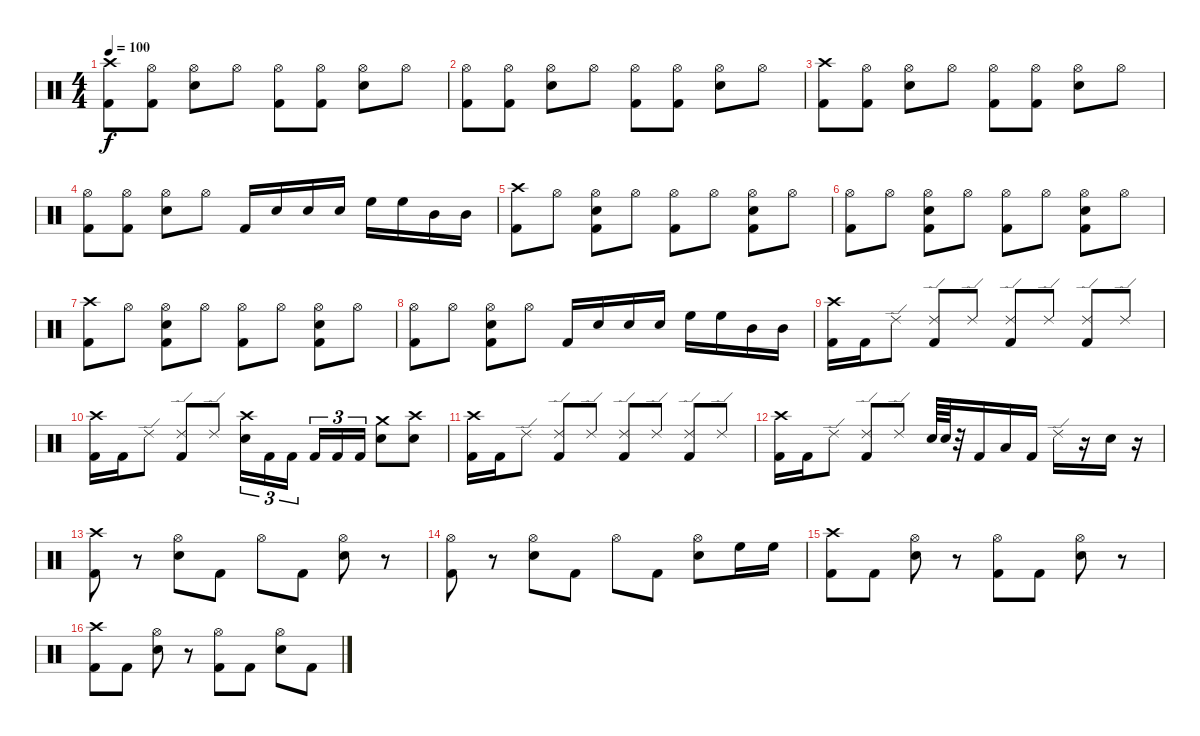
\track "" {instrument percussion}
\staff {score}
\articulation defaults
\ts (4 4)
\tempo 100
\clef neutral
\ks c
("Crash high (hit)" "Kick (hit) 2").8{dy f} ("Hi-Hat (open)" "Kick (hit) 2").8 ("Hi-Hat (open)" "Electric Snare (hit)").8 "Hi-Hat (open)".8 ("Hi-Hat (open)" "Kick (hit) 2").8 ("Hi-Hat (open)" "Kick (hit) 2").8 ("Hi-Hat (open)" "Electric Snare (hit)").8 "Hi-Hat (open)".8 |
("Hi-Hat (open)" "Kick (hit) 2").8 ("Hi-Hat (open)" "Kick (hit) 2").8 ("Hi-Hat (open)" "Electric Snare (hit)").8 "Hi-Hat (open)".8 ("Hi-Hat (open)" "Kick (hit) 2").8 ("Hi-Hat (open)" "Kick (hit) 2").8 ("Hi-Hat (open)" "Electric Snare (hit)").8 "Hi-Hat (open)".8 |
("Crash high (hit)" "Kick (hit) 2").8 ("Hi-Hat (open)" "Kick (hit) 2").8 ("Hi-Hat (open)" "Electric Snare (hit)").8 "Hi-Hat (open)".8 ("Hi-Hat (open)" "Kick (hit) 2").8 ("Hi-Hat (open)" "Kick (hit) 2").8 ("Hi-Hat (open)" "Electric Snare (hit)").8 "Hi-Hat (open)".8 |
("Hi-Hat (open)" "Kick (hit) 2").8 ("Hi-Hat (open)" "Kick (hit) 2").8 ("Hi-Hat (open)" "Electric Snare (hit)").8 "Hi-Hat (open)".8 "Kick (hit) 2".16 "Electric Snare (hit)".16 "Electric Snare (hit)".16 "Electric Snare (hit)".16 "High Floor Tom (hit)".16 "High Floor Tom (hit)".16 "Mid Tom (hit)".16 "Mid Tom (hit)".16 |
("Crash high (hit)" "Kick (hit) 2").8 "Hi-Hat (open)".8 ("Hi-Hat (open)" "Electric Snare (hit)" "Kick (hit) 2").8 "Hi-Hat (open)".8 ("Hi-Hat (open)" "Kick (hit) 2").8 "Hi-Hat (open)".8 ("Hi-Hat (open)" "Electric Snare (hit)" "Kick (hit) 2").8 "Hi-Hat (open)".8 |
("Hi-Hat (open)" "Kick (hit) 2").8 "Hi-Hat (open)".8 ("Hi-Hat (open)" "Electric Snare (hit)" "Kick (hit) 2").8 "Hi-Hat (open)".8 ("Hi-Hat (open)" "Kick (hit) 2").8 "Hi-Hat (open)".8 ("Hi-Hat (open)" "Electric Snare (hit)" "Kick (hit) 2").8 "Hi-Hat (open)".8 |
("Crash high (hit)" "Kick (hit) 2").8 "Hi-Hat (open)".8 ("Hi-Hat (open)" "Electric Snare (hit)" "Kick (hit) 2").8 "Hi-Hat (open)".8 ("Hi-Hat (open)" "Kick (hit) 2").8 "Hi-Hat (open)".8 ("Hi-Hat (open)" "Electric Snare (hit)" "Kick (hit) 2").8 "Hi-Hat (open)".8 |
("Hi-Hat (open)" "Kick (hit) 2").8 "Hi-Hat (open)".8 ("Hi-Hat (open)" "Kick (hit) 2" "Electric Snare (hit)").8 "Hi-Hat (open)".8 "Kick (hit) 2".16 "Electric Snare (hit)".16 "Electric Snare (hit)".16 "Electric Snare (hit)".16 "High Floor Tom (hit)".16 "High Floor Tom (hit)".16 "Mid Tom (hit)".16 "Mid Tom (hit)".16 |
("Crash high (hit)" "Kick (hit) 2").16 "Kick (hit) 2".16 "Ride (edge) 2".8 ("Ride (edge) 2" "Kick (hit) 2").8 "Ride (edge) 2".8 ("Ride (edge) 2" "Kick (hit) 2").8 "Ride (edge) 2".8 ("Ride (edge) 2" "Kick (hit) 2").8 "Ride (edge) 2".8 |
("Crash high (hit)" "Kick (hit) 2").16 "Kick (hit) 2".16 "Ride (edge) 2".8 ("Ride (edge) 2" "Kick (hit) 2").8 "Ride (edge) 2".8 ("Crash high (hit)" "Electric Snare (hit)").16{tu (3 2)} "Kick (hit) 2".16{tu (3 2)} "Kick (hit) 2".16{tu (3 2)} "Kick (hit) 2".16{tu (3 2)} "Kick (hit) 2".16{tu (3 2)} "Kick (hit) 2".16{tu (3 2)} ("Crash medium (hit)" "Electric Snare (hit)").8 ("Crash high (hit)" "Electric Snare (hit)").8 |
("Crash high (hit)" "Kick (hit) 2").16 "Kick (hit) 2".16 "Ride (edge) 2".8 ("Ride (edge) 2" "Kick (hit) 2").8 "Ride (edge) 2".8 ("Ride (edge) 2" "Kick (hit) 2").8 "Ride (edge) 2".8 ("Ride (edge) 2" "Kick (hit) 2").8 "Ride (edge) 2".8 |
("Crash high (hit)" "Kick (hit) 2").16 "Kick (hit) 2".16 "Ride (edge) 2".8 ("Ride (edge) 2" "Kick (hit) 2").8 "Ride (edge) 2".8 "Electric Snare (hit)".64 "Electric Snare (hit)".64 r.32 "Kick (hit) 2".16 "Low Tom (hit)".16 "Kick (hit) 2".16 "Ride (edge) 2".16 r.16 "Electric Snare (hit)".16 r.16 |
("Crash high (hit)" "Kick (hit) 2").8 r.8 ("Hi-Hat (open)" "Electric Snare (hit)").8 "Kick (hit) 2".8 "Hi-Hat (open)".8 "Kick (hit) 2".8 ("Hi-Hat (open)" "Electric Snare (hit)").8 r.8 |
("Hi-Hat (open)" "Kick (hit) 2").8 r.8 ("Hi-Hat (open)" "Electric Snare (hit)").8 "Kick (hit) 2".8 "Hi-Hat (open)".8 "Kick (hit) 2".8 ("Hi-Hat (open)" "Electric Snare (hit)").8 "High Floor Tom (hit)".16 "High Floor Tom (hit)".16 |
("Crash high (hit)" "Kick (hit) 2").8 "Kick (hit) 2".8 ("Hi-Hat (open)" "Electric Snare (hit)").8 r.8 ("Hi-Hat (open)" "Kick (hit) 2").8 "Kick (hit) 2".8 ("Hi-Hat (open)" "Electric Snare (hit)").8 r.8 |
("Crash high (hit)" "Kick (hit) 2").8 "Kick (hit) 2".8 ("Hi-Hat (open)" "Electric Snare (hit)").8 r.8 ("Hi-Hat (open)" "Kick (hit) 2").8 "Kick (hit) 2".8 ("Hi-Hat (open)" "Electric Snare (hit)").8 "Kick (hit) 2".8
